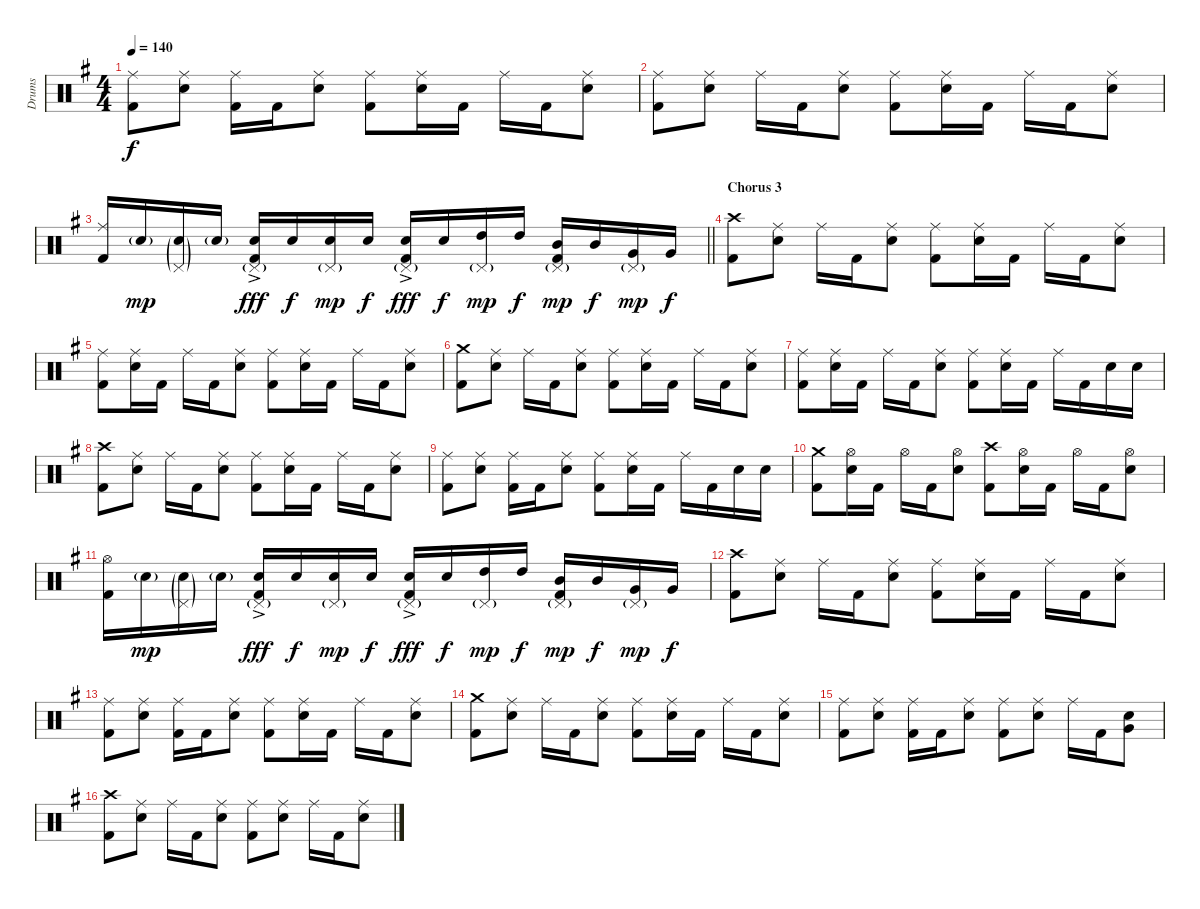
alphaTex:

\track ("Drums" "Drums") {instrument percussion}
\staff {score}
\articulation defaults
\ts (4 4)
\tempo 140
\clef neutral
\ks g
("Ride (middle)" "Kick (hit) 2").8{dy f} ("Ride (middle)" "Electric Snare (hit)").8 ("Ride (middle)" "Kick (hit) 2").16 "Kick (hit) 2".16 ("Ride (middle)" "Electric Snare (hit)").8 ("Ride (middle)" "Kick (hit) 2").8 ("Ride (middle)" "Electric Snare (hit)").16 "Kick (hit) 2".16 "Ride (middle)".16 "Kick (hit) 2".16 ("Ride (middle)" "Electric Snare (hit)").8 |
("Ride (middle)" "Kick (hit) 2").8 ("Ride (middle)" "Electric Snare (hit)").8 "Ride (middle)".16 "Kick (hit) 2".16 ("Ride (middle)" "Electric Snare (hit)").8 ("Ride (middle)" "Kick (hit) 2").8 ("Ride (middle)" "Electric Snare (hit)").16 "Kick (hit) 2".16 "Ride (middle)".16 "Kick (hit) 2".16 ("Ride (middle)" "Electric Snare (hit)").8 |
\barLineRight lightlight
("Ride (middle)" "Kick (hit) 2").16 "Electric Snare (hit)"{g}.16{dy mp} ("Pedal Hi-Hat (hit)"{g} "Electric Snare (hit)"{g}).16 "Electric Snare (hit)"{g}.16 ("Pedal Hi-Hat (hit)"{g} "Electric Snare (hit)"{ac} "Kick (hit) 2").16{dy fff} "Electric Snare (hit)".16{dy f} ("Pedal Hi-Hat (hit)"{g} "Electric Snare (hit)").16{dy mp} "Electric Snare (hit)".16{dy f} ("Pedal Hi-Hat (hit)"{g} "Electric Snare (hit)"{ac} "Kick (hit) 2").16{dy fff} "Electric Snare (hit)".16{dy f} ("Pedal Hi-Hat (hit)"{g} "High Tom (hit)").16{dy mp} "High Tom (hit)".16{dy f} ("Pedal Hi-Hat (hit)"{g} "Mid Tom (hit)" "Kick (hit) 2").16{dy mp} "Mid Tom (hit)".16{dy f} ("Pedal Hi-Hat (hit)"{g} "Very Low Tom (hit)").16{dy mp} "Very Low Tom (hit)".16{dy f} |
\section ("" "Chorus 3")
("Crash high (hit)" "Kick (hit) 2").8 ("Ride (middle)" "Electric Snare (hit)").8 "Ride (middle)".16 "Kick (hit) 2".16 ("Ride (middle)" "Electric Snare (hit)").8 ("Ride (middle)" "Kick (hit) 2").8 ("Ride (middle)" "Electric Snare (hit)").16 "Kick (hit) 2".16 "Ride (middle)".16 "Kick (hit) 2".16 ("Ride (middle)" "Electric Snare (hit)").8 |
("Ride (middle)" "Kick (hit) 2").8 ("Ride (middle)" "Electric Snare (hit)").16 "Kick (hit) 2".16 "Ride (middle)".16 "Kick (hit) 2".16 ("Ride (middle)" "Electric Snare (hit)").8 ("Ride (middle)" "Kick (hit) 2").8 ("Ride (middle)" "Electric Snare (hit)").16 "Kick (hit) 2".16 "Ride (middle)".16 "Kick (hit) 2".16 ("Ride (middle)" "Electric Snare (hit)").8 |
("Crash medium (hit)" "Kick (hit) 2").8 ("Ride (middle)" "Electric Snare (hit)").8 "Ride (middle)".16 "Kick (hit) 2".16 ("Ride (middle)" "Electric Snare (hit)").8 ("Ride (middle)" "Kick (hit) 2").8 ("Ride (middle)" "Electric Snare (hit)").16 "Kick (hit) 2".16 "Ride (middle)".16 "Kick (hit) 2".16 ("Ride (middle)" "Electric Snare (hit)").8 |
("Ride (middle)" "Kick (hit) 2").8 ("Ride (middle)" "Electric Snare (hit)").16 "Kick (hit) 2".16 "Ride (middle)".16 "Kick (hit) 2".16 ("Ride (middle)" "Electric Snare (hit)").8 ("Ride (middle)" "Kick (hit) 2").8 ("Ride (middle)" "Electric Snare (hit)").16 "Kick (hit) 2".16 "Ride (middle)".16 "Kick (hit) 2".16 "Electric Snare (hit)".16 "Electric Snare (hit)".16 |
("Crash high (hit)" "Kick (hit) 2").8 ("Ride (middle)" "Electric Snare (hit)").8 "Ride (middle)".16 "Kick (hit) 2".16 ("Ride (middle)" "Electric Snare (hit)").8 ("Ride (middle)" "Kick (hit) 2").8 ("Ride (middle)" "Electric Snare (hit)").16 "Kick (hit) 2".16 "Ride (middle)".16 "Kick (hit) 2".16 ("Ride (middle)" "Electric Snare (hit)").8 |
("Ride (middle)" "Kick (hit) 2").8 ("Ride (middle)" "Electric Snare (hit)").8 ("Ride (middle)" "Kick (hit) 2").16 "Kick (hit) 2".16 ("Ride (middle)" "Electric Snare (hit)").8 ("Ride (middle)" "Kick (hit) 2").8 ("Ride (middle)" "Electric Snare (hit)").16 "Kick (hit) 2".16 "Ride (middle)".16 "Kick (hit) 2".16 "Electric Snare (hit)".16 "Electric Snare (hit)".16 |
("Crash medium (hit)" "Kick (hit) 2").8 ("Hi-Hat (open)" "Electric Snare (hit)").16 "Kick (hit) 2".16 "Hi-Hat (open)".16 "Kick (hit) 2".16 ("Hi-Hat (open)" "Electric Snare (hit)").8 ("Crash high (hit)" "Kick (hit) 2").8 ("Hi-Hat (open)" "Electric Snare (hit)").16 "Kick (hit) 2".16 "Hi-Hat (open)".16 "Kick (hit) 2".16 ("Hi-Hat (open)" "Electric Snare (hit)").8 |
("Hi-Hat (open)" "Kick (hit) 2").16 "Electric Snare (hit)"{g}.16{dy mp} ("Pedal Hi-Hat (hit)"{g} "Electric Snare (hit)"{g}).16 "Electric Snare (hit)"{g}.16 ("Pedal Hi-Hat (hit)"{g} "Electric Snare (hit)"{ac} "Kick (hit) 2").16{dy fff} "Electric Snare (hit)".16{dy f} ("Pedal Hi-Hat (hit)"{g} "Electric Snare (hit)").16{dy mp} "Electric Snare (hit)".16{dy f} ("Pedal Hi-Hat (hit)"{g} "Electric Snare (hit)"{ac} "Kick (hit) 2").16{dy fff} "Electric Snare (hit)".16{dy f} ("Pedal Hi-Hat (hit)"{g} "High Tom (hit)").16{dy mp} "High Tom (hit)".16{dy f} ("Pedal Hi-Hat (hit)"{g} "Mid Tom (hit)" "Kick (hit) 2").16{dy mp} "Mid Tom (hit)".16{dy f} ("Pedal Hi-Hat (hit)"{g} "Very Low Tom (hit)").16{dy mp} "Very Low Tom (hit)".16{dy f} |
("Crash high (hit)" "Kick (hit) 2").8 ("Ride (middle)" "Electric Snare (hit)").8 "Ride (middle)".16 "Kick (hit) 2".16 ("Ride (middle)" "Electric Snare (hit)").8 ("Ride (middle)" "Kick (hit) 2").8 ("Ride (middle)" "Electric Snare (hit)").16 "Kick (hit) 2".16 "Ride (middle)".16 "Kick (hit) 2".16 ("Ride (middle)" "Electric Snare (hit)").8 |
("Ride (middle)" "Kick (hit) 2").8 ("Ride (middle)" "Electric Snare (hit)").8 ("Ride (middle)" "Kick (hit) 2").16 "Kick (hit) 2".16 ("Ride (middle)" "Electric Snare (hit)").8 ("Ride (middle)" "Kick (hit) 2").8 ("Ride (middle)" "Electric Snare (hit)").16 "Kick (hit) 2".16 "Ride (middle)".16 "Kick (hit) 2".16 ("Ride (middle)" "Electric Snare (hit)").8 |
("Crash medium (hit)" "Kick (hit) 2").8 ("Ride (middle)" "Electric Snare (hit)").8 "Ride (middle)".16 "Kick (hit) 2".16 ("Ride (middle)" "Electric Snare (hit)").8 ("Ride (middle)" "Kick (hit) 2").8 ("Ride (middle)" "Electric Snare (hit)").16 "Kick (hit) 2".16 "Ride (middle)".16 "Kick (hit) 2".16 ("Ride (middle)" "Electric Snare (hit)").8 |
("Ride (middle)" "Kick (hit) 2").8 ("Ride (middle)" "Electric Snare (hit)").8 ("Ride (middle)" "Kick (hit) 2").16 "Kick (hit) 2".16 ("Ride (middle)" "Electric Snare (hit)").8 ("Ride (middle)" "Kick (hit) 2").8 ("Ride (middle)" "Electric Snare (hit)").8 "Ride (middle)".16 "Kick (hit) 2".16 ("Electric Snare (hit)" "Very Low Tom (hit)").8 |
("Crash high (hit)" "Kick (hit) 2").8 ("Ride (middle)" "Electric Snare (hit)").8 "Ride (middle)".16 "Kick (hit) 2".16 ("Ride (middle)" "Electric Snare (hit)").8 ("Ride (middle)" "Kick (hit) 2").8 ("Ride (middle)" "Electric Snare (hit)").8 "Ride (middle)".16 "Kick (hit) 2".16 ("Ride (middle)" "Electric Snare (hit)").8
